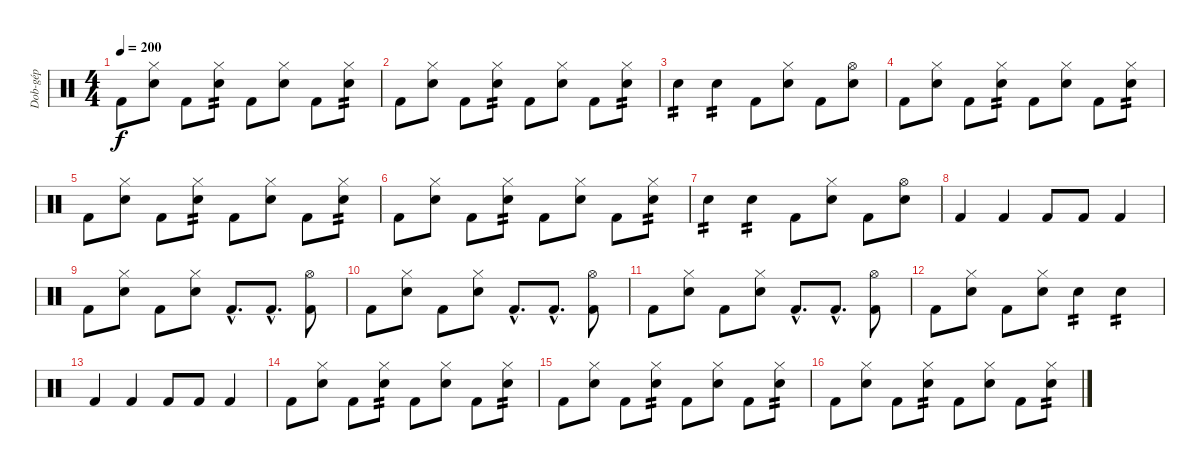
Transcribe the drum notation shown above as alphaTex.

\track ("Dob-gép" "Dob-gép") {instrument percussion}
\staff {score}
\articulation defaults
\ts (4 4)
\tempo 200
\clef neutral
\ks c "Kick (hit) 2".8{dy f}
("Hi-Hat (closed)" "Snare (hit) 2").8 "Kick (hit) 2".8 ("Hi-Hat (closed)" "Snare (hit) 2").8{tp 2} "Kick (hit) 2".8 ("Hi-Hat (closed)" "Snare (hit) 2").8 "Kick (hit) 2".8 ("Hi-Hat (closed)" "Snare (hit) 2").8{tp 2} |
"Kick (hit) 2".8 ("Hi-Hat (closed)" "Snare (hit) 2").8 "Kick (hit) 2".8 ("Hi-Hat (closed)" "Snare (hit) 2").8{tp 2} "Kick (hit) 2".8 ("Hi-Hat (closed)" "Snare (hit) 2").8 "Kick (hit) 2".8 ("Hi-Hat (closed)" "Snare (hit) 2").8{tp 2} |
"Snare (hit) 2".4{tp 2} "Snare (hit) 2".4{tp 2} "Kick (hit) 2".8 ("Hi-Hat (closed)" "Snare (hit) 2").8 "Kick (hit) 2".8 ("Hi-Hat (open)" "Snare (hit) 2").8 |
"Kick (hit) 2".8 ("Hi-Hat (closed)" "Snare (hit) 2").8 "Kick (hit) 2".8 ("Hi-Hat (closed)" "Snare (hit) 2").8{tp 2} "Kick (hit) 2".8 ("Hi-Hat (closed)" "Snare (hit) 2").8 "Kick (hit) 2".8 ("Hi-Hat (closed)" "Snare (hit) 2").8{tp 2} |
"Kick (hit) 2".8 ("Hi-Hat (closed)" "Snare (hit) 2").8 "Kick (hit) 2".8 ("Hi-Hat (closed)" "Snare (hit) 2").8{tp 2} "Kick (hit) 2".8 ("Hi-Hat (closed)" "Snare (hit) 2").8 "Kick (hit) 2".8 ("Hi-Hat (closed)" "Snare (hit) 2").8{tp 2} |
"Kick (hit) 2".8 ("Hi-Hat (closed)" "Snare (hit) 2").8 "Kick (hit) 2".8 ("Hi-Hat (closed)" "Snare (hit) 2").8{tp 2} "Kick (hit) 2".8 ("Hi-Hat (closed)" "Snare (hit) 2").8 "Kick (hit) 2".8 ("Hi-Hat (closed)" "Snare (hit) 2").8{tp 2} |
"Snare (hit) 2".4{tp 2} "Snare (hit) 2".4{tp 2} "Kick (hit) 2".8 ("Hi-Hat (closed)" "Snare (hit) 2").8 "Kick (hit) 2".8 ("Hi-Hat (open)" "Snare (hit) 2").8 |
"Kick (hit) 2".4 "Kick (hit) 2".4 "Kick (hit) 2".8 "Kick (hit) 2".8 "Kick (hit) 2".4 |
"Kick (hit) 2".8 ("Hi-Hat (closed)" "Snare (hit) 2").8 "Kick (hit) 2".8 ("Hi-Hat (closed)" "Snare (hit) 2").8 "Kick (hit) 2"{hac}.8{d} "Kick (hit) 2"{hac}.8{d} ("Hi-Hat (open)" "Kick (hit) 2").8 |
"Kick (hit) 2".8 ("Hi-Hat (closed)" "Snare (hit) 2").8 "Kick (hit) 2".8 ("Hi-Hat (closed)" "Snare (hit) 2").8 "Kick (hit) 2"{hac}.8{d} "Kick (hit) 2"{hac}.8{d} ("Hi-Hat (open)" "Kick (hit) 2").8 |
"Kick (hit) 2".8 ("Hi-Hat (closed)" "Snare (hit) 2").8 "Kick (hit) 2".8 ("Hi-Hat (closed)" "Snare (hit) 2").8 "Kick (hit) 2"{hac}.8{d} "Kick (hit) 2"{hac}.8{d} ("Hi-Hat (open)" "Kick (hit) 2").8 |
"Kick (hit) 2".8 ("Hi-Hat (closed)" "Snare (hit) 2").8 "Kick (hit) 2".8 ("Hi-Hat (closed)" "Snare (hit) 2").8 "Snare (hit) 2".4{tp 2} "Snare (hit) 2".4{tp 2} |
"Kick (hit) 2".4 "Kick (hit) 2".4 "Kick (hit) 2".8 "Kick (hit) 2".8 "Kick (hit) 2".4 |
"Kick (hit) 2".8 ("Hi-Hat (closed)" "Snare (hit) 2").8 "Kick (hit) 2".8 ("Hi-Hat (closed)" "Snare (hit) 2").8{tp 2} "Kick (hit) 2".8 ("Hi-Hat (closed)" "Snare (hit) 2").8 "Kick (hit) 2".8 ("Hi-Hat (closed)" "Snare (hit) 2").8{tp 2} |
"Kick (hit) 2".8 ("Hi-Hat (closed)" "Snare (hit) 2").8 "Kick (hit) 2".8 ("Hi-Hat (closed)" "Snare (hit) 2").8{tp 2} "Kick (hit) 2".8 ("Hi-Hat (closed)" "Snare (hit) 2").8 "Kick (hit) 2".8 ("Hi-Hat (closed)" "Snare (hit) 2").8{tp 2} |
"Kick (hit) 2".8 ("Hi-Hat (closed)" "Snare (hit) 2").8 "Kick (hit) 2".8 ("Hi-Hat (closed)" "Snare (hit) 2").8{tp 2} "Kick (hit) 2".8 ("Hi-Hat (closed)" "Snare (hit) 2").8 "Kick (hit) 2".8 ("Hi-Hat (closed)" "Snare (hit) 2").8{tp 2}
